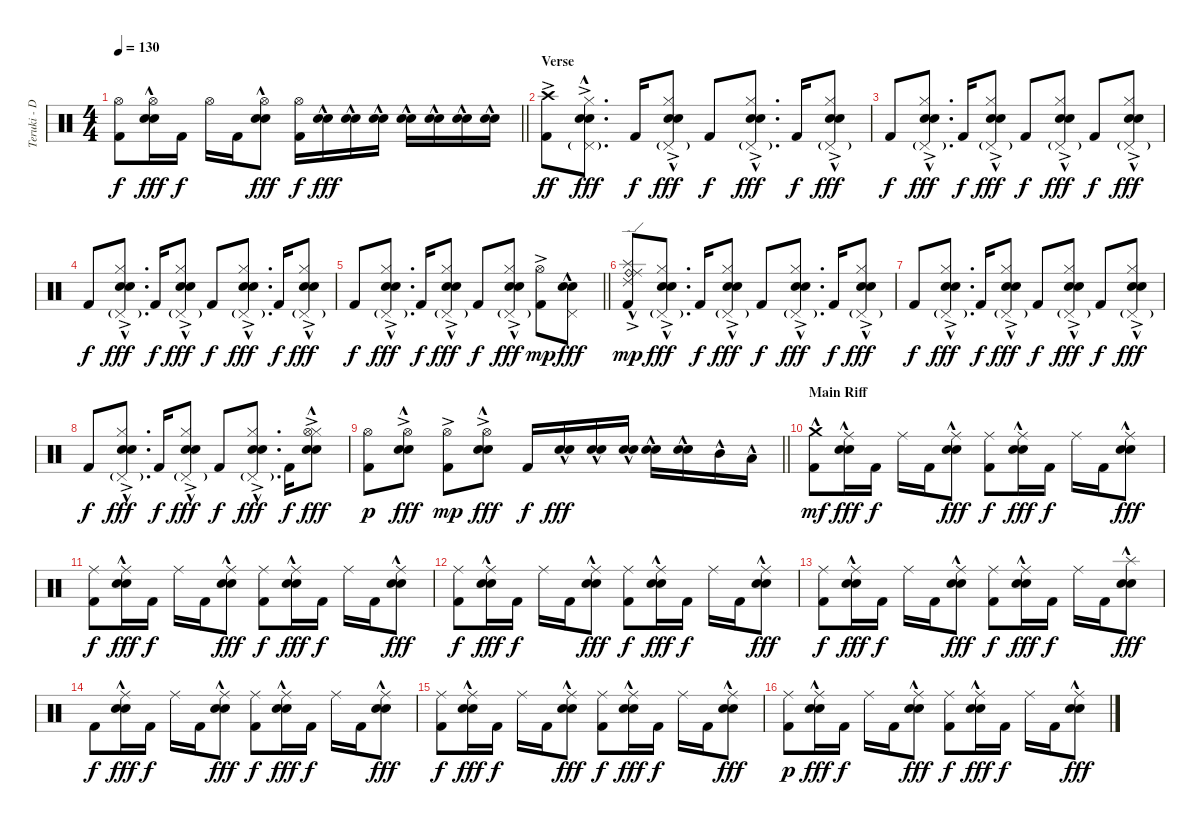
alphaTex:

\track ("Teruki - Drums" "Teruki - D") {instrument percussion}
\staff {score}
\articulation defaults
\ts (4 4)
\tempo 130
\clef neutral
\barLineRight lightlight
\ks c
("Hi-Hat (open)" "Kick (hit) 2").8{dy f} ("Hi-Hat (open)" "Electric Snare (hit)"{hac} "Snare (hit) 2").16{dy fff} "Kick (hit) 2".16{dy f} "Hi-Hat (open)".16 "Kick (hit) 2".16 ("Hi-Hat (open)" "Electric Snare (hit)"{hac} "Snare (hit) 2").8{dy fff} ("Hi-Hat (open)" "Kick (hit) 2").16{dy f} ("Electric Snare (hit)"{hac} "Snare (hit) 2").16{dy fff} ("Electric Snare (hit)"{hac} "Snare (hit) 2").16 ("Electric Snare (hit)"{hac} "Snare (hit) 2").16 ("Electric Snare (hit)"{hac} "Snare (hit) 2").16 ("Electric Snare (hit)"{hac} "Snare (hit) 2").16 ("Electric Snare (hit)"{hac} "Snare (hit) 2").16 ("Electric Snare (hit)"{hac} "Snare (hit) 2").16 |
\section ("" "Verse")
("Crash high (hit)"{ac} "Kick (hit) 2").8{dy ff} ("Hi-Hat (closed)"{ac} "Pedal Hi-Hat (hit)"{g} "Electric Snare (hit)"{hac} "Snare (hit) 2").8{d dy fff} "Kick (hit) 2".16{dy f} ("Hi-Hat (closed)"{ac} "Pedal Hi-Hat (hit)"{g} "Electric Snare (hit)"{hac} "Snare (hit) 2").8{dy fff} "Kick (hit) 2".8{dy f} ("Hi-Hat (closed)"{ac} "Pedal Hi-Hat (hit)"{g} "Electric Snare (hit)"{hac} "Snare (hit) 2").8{d dy fff} "Kick (hit) 2".16{dy f} ("Hi-Hat (closed)"{ac} "Pedal Hi-Hat (hit)"{g} "Electric Snare (hit)"{hac} "Snare (hit) 2").8{dy fff} |
"Kick (hit) 2".8{dy f} ("Hi-Hat (closed)"{ac} "Pedal Hi-Hat (hit)"{g} "Electric Snare (hit)"{hac} "Snare (hit) 2").8{d dy fff} "Kick (hit) 2".16{dy f} ("Hi-Hat (closed)"{ac} "Pedal Hi-Hat (hit)"{g} "Electric Snare (hit)"{hac} "Snare (hit) 2").8{dy fff} "Kick (hit) 2".8{dy f} ("Hi-Hat (closed)"{ac} "Pedal Hi-Hat (hit)"{g} "Electric Snare (hit)"{hac} "Snare (hit) 2").8{dy fff} "Kick (hit) 2".8{dy f} ("Hi-Hat (closed)"{ac} "Pedal Hi-Hat (hit)"{g} "Electric Snare (hit)"{hac} "Snare (hit) 2").8{dy fff} |
"Kick (hit) 2".8{dy f} ("Hi-Hat (closed)"{ac} "Pedal Hi-Hat (hit)"{g} "Electric Snare (hit)"{hac} "Snare (hit) 2").8{d dy fff} "Kick (hit) 2".16{dy f} ("Hi-Hat (closed)"{ac} "Pedal Hi-Hat (hit)"{g} "Electric Snare (hit)"{hac} "Snare (hit) 2").8{dy fff} "Kick (hit) 2".8{dy f} ("Hi-Hat (closed)"{ac} "Pedal Hi-Hat (hit)"{g} "Electric Snare (hit)"{hac} "Snare (hit) 2").8{d dy fff} "Kick (hit) 2".16{dy f} ("Hi-Hat (closed)"{ac} "Pedal Hi-Hat (hit)"{g} "Electric Snare (hit)"{hac} "Snare (hit) 2").8{dy fff} |
\barLineRight lightlight "Kick (hit) 2".8{dy f}
("Hi-Hat (closed)"{ac} "Pedal Hi-Hat (hit)"{g} "Electric Snare (hit)"{hac} "Snare (hit) 2").8{d dy fff} "Kick (hit) 2".16{dy f} ("Hi-Hat (closed)"{ac} "Pedal Hi-Hat (hit)"{g} "Electric Snare (hit)"{hac} "Snare (hit) 2").8{dy fff} "Kick (hit) 2".8{dy f} ("Hi-Hat (closed)"{ac} "Pedal Hi-Hat (hit)"{g} "Electric Snare (hit)"{hac} "Snare (hit) 2").8{dy fff} ("Hi-Hat (open)"{ac} "Kick (hit) 2").8{dy mp} ("Pedal Hi-Hat (hit)" "Electric Snare (hit)"{hac} "Snare (hit) 2").8{dy fff} |
("Ride (bell)"{hac} "Ride (edge) 2"{hac} "Splash (hit)"{hac} "Ride (middle)"{ac} "Kick (hit) 2").8{dy mp} ("Hi-Hat (closed)"{ac} "Pedal Hi-Hat (hit)"{g} "Electric Snare (hit)"{hac} "Snare (hit) 2").8{d dy fff} "Kick (hit) 2".16{dy f} ("Hi-Hat (closed)"{ac} "Pedal Hi-Hat (hit)"{g} "Electric Snare (hit)"{hac} "Snare (hit) 2").8{dy fff} "Kick (hit) 2".8{dy f} ("Hi-Hat (closed)"{ac} "Pedal Hi-Hat (hit)"{g} "Electric Snare (hit)"{hac} "Snare (hit) 2").8{d dy fff} "Kick (hit) 2".16{dy f} ("Hi-Hat (closed)"{ac} "Pedal Hi-Hat (hit)"{g} "Electric Snare (hit)"{hac} "Snare (hit) 2").8{dy fff} |
"Kick (hit) 2".8{dy f} ("Hi-Hat (closed)"{ac} "Pedal Hi-Hat (hit)"{g} "Electric Snare (hit)"{hac} "Snare (hit) 2").8{d dy fff} "Kick (hit) 2".16{dy f} ("Hi-Hat (closed)"{ac} "Pedal Hi-Hat (hit)"{g} "Electric Snare (hit)"{hac} "Snare (hit) 2").8{dy fff} "Kick (hit) 2".8{dy f} ("Hi-Hat (closed)"{ac} "Pedal Hi-Hat (hit)"{g} "Electric Snare (hit)"{hac} "Snare (hit) 2").8{dy fff} "Kick (hit) 2".8{dy f} ("Hi-Hat (closed)"{ac} "Pedal Hi-Hat (hit)"{g} "Electric Snare (hit)"{hac} "Snare (hit) 2").8{dy fff} |
"Kick (hit) 2".8{dy f} ("Hi-Hat (closed)"{ac} "Pedal Hi-Hat (hit)"{g} "Electric Snare (hit)"{hac} "Snare (hit) 2").8{d dy fff} "Kick (hit) 2".16{dy f} ("Hi-Hat (closed)"{ac} "Pedal Hi-Hat (hit)"{g} "Electric Snare (hit)"{hac} "Snare (hit) 2").8{dy fff} "Kick (hit) 2".8{dy f} ("Hi-Hat (closed)"{ac} "Pedal Hi-Hat (hit)"{g} "Electric Snare (hit)"{hac} "Snare (hit) 2").8{d dy fff} "Kick (hit) 2".16{dy f} ("Hi-Hat (closed)"{ac} "Hi-Hat (open)" "Electric Snare (hit)"{hac} "Snare (hit) 2").8{dy fff} |
\barLineRight lightlight
("Hi-Hat (open)" "Kick (hit) 2").8{dy p} ("Hi-Hat (open)"{ac} "Electric Snare (hit)"{hac} "Snare (hit) 2").8{dy fff} ("Hi-Hat (open)"{ac} "Kick (hit) 2").8{dy mp} ("Hi-Hat (open)"{ac} "Electric Snare (hit)"{hac} "Snare (hit) 2").8{dy fff} "Kick (hit) 2".16{dy f} ("Electric Snare (hit)"{hac} "Snare (hit) 2").16{dy fff} ("Electric Snare (hit)"{hac} "Snare (hit) 2").16 ("Electric Snare (hit)"{hac} "Snare (hit) 2").16 ("Electric Snare (hit)"{hac} "Snare (hit) 2").16 ("Electric Snare (hit)"{hac} "Snare (hit) 2").16 "Mid Tom (hit)"{hac}.16 "Low Tom (hit)"{hac}.16 |
\section ("" "Main Riff")
("Crash medium (hit)"{hac} "Kick (hit) 2").8{dy mf} ("Ride (middle)" "Electric Snare (hit)"{hac} "Snare (hit) 2").16{dy fff} "Kick (hit) 2".16{dy f} "Ride (middle)".16 "Kick (hit) 2".16 ("Ride (middle)" "Electric Snare (hit)"{hac} "Snare (hit) 2").8{dy fff} ("Ride (middle)" "Kick (hit) 2").8{dy f} ("Ride (middle)" "Electric Snare (hit)"{hac} "Snare (hit) 2").16{dy fff} "Kick (hit) 2".16{dy f} "Ride (middle)".16 "Kick (hit) 2".16 ("Ride (middle)" "Electric Snare (hit)"{hac} "Snare (hit) 2").8{dy fff} |
("Ride (middle)" "Kick (hit) 2").8{dy f} ("Ride (middle)" "Electric Snare (hit)"{hac} "Snare (hit) 2").16{dy fff} "Kick (hit) 2".16{dy f} "Ride (middle)".16 "Kick (hit) 2".16 ("Ride (middle)" "Electric Snare (hit)"{hac} "Snare (hit) 2").8{dy fff} ("Ride (middle)" "Kick (hit) 2").8{dy f} ("Ride (middle)" "Electric Snare (hit)"{hac} "Snare (hit) 2").16{dy fff} "Kick (hit) 2".16{dy f} "Ride (middle)".16 "Kick (hit) 2".16 ("Ride (middle)" "Electric Snare (hit)"{hac} "Snare (hit) 2").8{dy fff} |
("Ride (middle)" "Kick (hit) 2").8{dy f} ("Ride (middle)" "Electric Snare (hit)"{hac} "Snare (hit) 2").16{dy fff} "Kick (hit) 2".16{dy f} "Ride (middle)".16 "Kick (hit) 2".16 ("Ride (middle)" "Electric Snare (hit)"{hac} "Snare (hit) 2").8{dy fff} ("Ride (middle)" "Kick (hit) 2").8{dy f} ("Ride (middle)" "Electric Snare (hit)"{hac} "Snare (hit) 2").16{dy fff} "Kick (hit) 2".16{dy f} "Ride (middle)".16 "Kick (hit) 2".16 ("Ride (middle)" "Electric Snare (hit)"{hac} "Snare (hit) 2").8{dy fff} |
("Ride (middle)" "Kick (hit) 2").8{dy f} ("Ride (middle)" "Electric Snare (hit)"{hac} "Snare (hit) 2").16{dy fff} "Kick (hit) 2".16{dy f} "Ride (middle)".16 "Kick (hit) 2".16 ("Ride (middle)" "Electric Snare (hit)"{hac} "Snare (hit) 2").8{dy fff} ("Ride (middle)" "Kick (hit) 2").8{dy f} ("Ride (middle)" "Electric Snare (hit)"{hac} "Snare (hit) 2").16{dy fff} "Kick (hit) 2".16{dy f} "Ride (middle)".16 "Kick (hit) 2".16 ("Splash (hit)"{hac} "Electric Snare (hit)"{hac} "Snare (hit) 2").8{dy fff} |
"Kick (hit) 2".8{dy f} ("Ride (middle)" "Electric Snare (hit)"{hac} "Snare (hit) 2").16{dy fff} "Kick (hit) 2".16{dy f} "Ride (middle)".16 "Kick (hit) 2".16 ("Ride (middle)" "Electric Snare (hit)"{hac} "Snare (hit) 2").8{dy fff} ("Ride (middle)" "Kick (hit) 2").8{dy f} ("Ride (middle)" "Electric Snare (hit)"{hac} "Snare (hit) 2").16{dy fff} "Kick (hit) 2".16{dy f} "Ride (middle)".16 "Kick (hit) 2".16 ("Ride (middle)" "Electric Snare (hit)"{hac} "Snare (hit) 2").8{dy fff} |
("Ride (middle)" "Kick (hit) 2").8{dy f} ("Ride (middle)" "Electric Snare (hit)"{hac} "Snare (hit) 2").16{dy fff} "Kick (hit) 2".16{dy f} "Ride (middle)".16 "Kick (hit) 2".16 ("Ride (middle)" "Electric Snare (hit)"{hac} "Snare (hit) 2").8{dy fff} ("Ride (middle)" "Kick (hit) 2").8{dy f} ("Ride (middle)" "Electric Snare (hit)"{hac} "Snare (hit) 2").16{dy fff} "Kick (hit) 2".16{dy f} "Ride (middle)".16 "Kick (hit) 2".16 ("Ride (middle)" "Electric Snare (hit)"{hac} "Snare (hit) 2").8{dy fff} |
("Ride (middle)" "Kick (hit) 2").8{dy p} ("Ride (middle)" "Electric Snare (hit)"{hac} "Snare (hit) 2").16{dy fff} "Kick (hit) 2".16{dy f} "Ride (middle)".16 "Kick (hit) 2".16 ("Ride (middle)" "Electric Snare (hit)"{hac} "Snare (hit) 2").8{dy fff} ("Ride (middle)" "Kick (hit) 2").8{dy f} ("Ride (middle)" "Electric Snare (hit)"{hac} "Snare (hit) 2").16{dy fff} "Kick (hit) 2".16{dy f} "Ride (middle)".16 "Kick (hit) 2".16 ("Ride (middle)" "Electric Snare (hit)"{hac} "Snare (hit) 2").8{dy fff}
